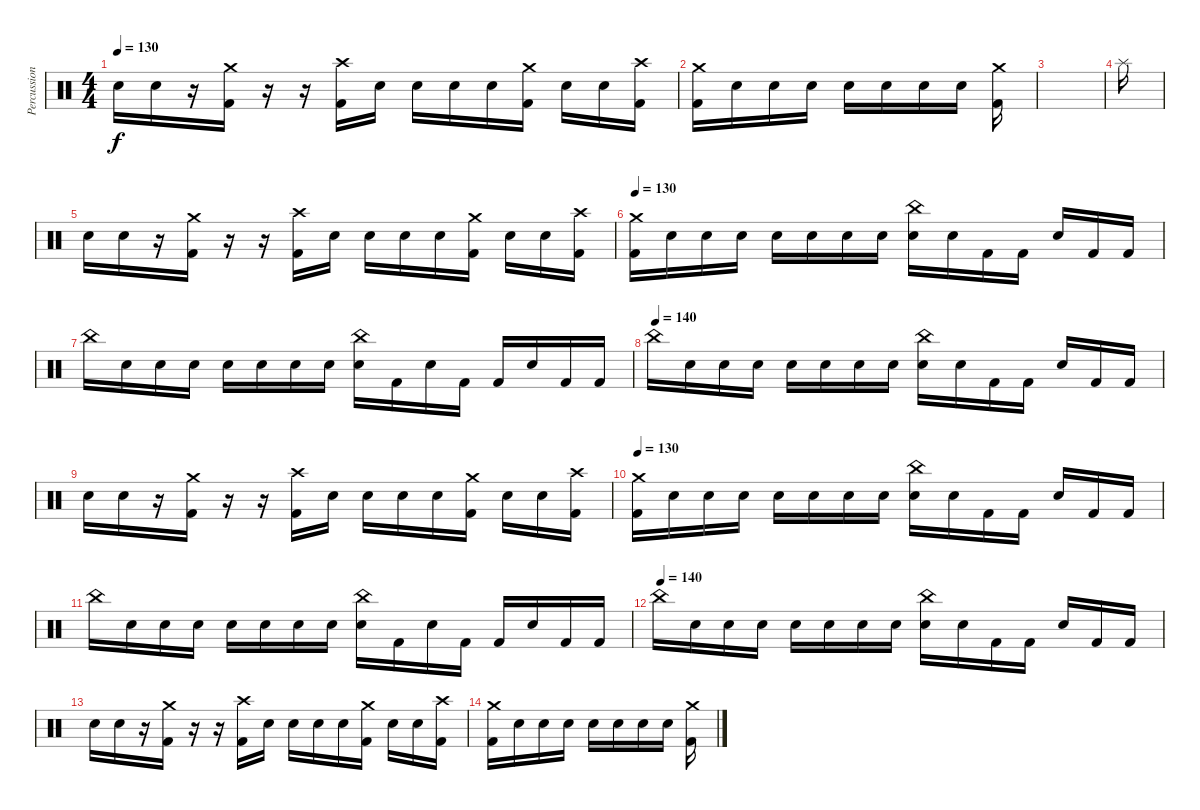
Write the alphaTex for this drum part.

\track ("Percussion" "Percussion") {instrument percussion}
\staff {score}
\articulation defaults
\ts (4 4)
\tempo 130
\clef neutral
\ks c "Snare (hit) 2".16{dy f} "Snare (hit)".16
r.16 ("Crash medium (hit)" "Kick (hit) 2").16 r.16 r.16 ("Crash high (hit)" "Kick (hit) 2").16 "Snare (hit)".16 "Snare (hit) 2".16 "Snare (hit)".16 "Snare (hit)".16 ("Crash medium (hit)" "Kick (hit) 2").16 "Snare (hit)".16 "Snare (hit)".16 ("Crash high (hit)" "Kick (hit) 2").16 |
("Crash medium (hit)" "Kick (hit) 2").16 "Snare (hit)".16 "Snare (hit)".16 "Snare (hit)".16 "Snare (hit)".16 "Snare (hit)".16 "Snare (hit)".16 "Snare (hit)".16 ("Crash medium (hit)" "Kick (hit) 2").16 |
|
"Splash (hit)".16 |
"Snare (hit) 2".16 "Snare (hit)".16 r.16 ("Crash medium (hit)" "Kick (hit) 2").16 r.16 r.16 ("Crash high (hit)" "Kick (hit) 2").16 "Snare (hit)".16 "Snare (hit) 2".16 "Snare (hit)".16 "Snare (hit)".16 ("Crash medium (hit)" "Kick (hit) 2").16 "Snare (hit)".16 "Snare (hit)".16 ("Crash high (hit)" "Kick (hit) 2").16 |
\tempo 130
("Crash medium (hit)" "Kick (hit) 2").16 "Snare (hit)".16 "Snare (hit)".16 "Snare (hit)".16 "Snare (hit)".16 "Snare (hit)".16 "Snare (hit)".16 "Snare (hit)".16 ("China (hit)" "Snare (hit) 2").16 "Snare (hit)".16 "Kick (hit) 2".16 "Kick (hit) 2".16 "Snare (hit)".16 "Kick (hit) 2".16 "Kick (hit) 2".16 |
"China (hit)".16 "Snare (hit)".16 "Snare (hit)".16 "Snare (hit)".16 "Snare (hit)".16 "Snare (hit)".16 "Snare (hit)".16 "Snare (hit)".16 ("China (hit)" "Snare (hit) 2").16 "Kick (hit) 2".16 "Snare (hit)".16 "Kick (hit) 2".16 "Kick (hit) 2".16 "Snare (hit)".16 "Kick (hit) 2".16 "Kick (hit) 2".16 |
\tempo (140)
"China (hit)".16 "Snare (hit)".16 "Snare (hit)".16 "Snare (hit)".16 "Snare (hit)".16 "Snare (hit)".16 "Snare (hit)".16 "Snare (hit)".16 ("China (hit)" "Snare (hit) 2").16 "Snare (hit)".16 "Kick (hit) 2".16 "Kick (hit) 2".16 "Snare (hit)".16 "Kick (hit) 2".16 "Kick (hit) 2".16 |
"Snare (hit) 2".16 "Snare (hit)".16 r.16 ("Crash medium (hit)" "Kick (hit) 2").16 r.16 r.16 ("Crash high (hit)" "Kick (hit) 2").16 "Snare (hit)".16 "Snare (hit) 2".16 "Snare (hit)".16 "Snare (hit)".16 ("Crash medium (hit)" "Kick (hit) 2").16 "Snare (hit)".16 "Snare (hit)".16 ("Crash high (hit)" "Kick (hit) 2").16 |
\tempo 130
("Crash medium (hit)" "Kick (hit) 2").16 "Snare (hit)".16 "Snare (hit)".16 "Snare (hit)".16 "Snare (hit)".16 "Snare (hit)".16 "Snare (hit)".16 "Snare (hit)".16 ("China (hit)" "Snare (hit) 2").16 "Snare (hit)".16 "Kick (hit) 2".16 "Kick (hit) 2".16 "Snare (hit)".16 "Kick (hit) 2".16 "Kick (hit) 2".16 |
"China (hit)".16 "Snare (hit)".16 "Snare (hit)".16 "Snare (hit)".16 "Snare (hit)".16 "Snare (hit)".16 "Snare (hit)".16 "Snare (hit)".16 ("China (hit)" "Snare (hit) 2").16 "Kick (hit) 2".16 "Snare (hit)".16 "Kick (hit) 2".16 "Kick (hit) 2".16 "Snare (hit)".16 "Kick (hit) 2".16 "Kick (hit) 2".16 |
\tempo (140)
"China (hit)".16 "Snare (hit)".16 "Snare (hit)".16 "Snare (hit)".16 "Snare (hit)".16 "Snare (hit)".16 "Snare (hit)".16 "Snare (hit)".16 ("China (hit)" "Snare (hit) 2").16 "Snare (hit)".16 "Kick (hit) 2".16 "Kick (hit) 2".16 "Snare (hit)".16 "Kick (hit) 2".16 "Kick (hit) 2".16 |
"Snare (hit) 2".16 "Snare (hit)".16 r.16 ("Crash medium (hit)" "Kick (hit) 2").16 r.16 r.16 ("Crash high (hit)" "Kick (hit) 2").16 "Snare (hit)".16 "Snare (hit) 2".16 "Snare (hit)".16 "Snare (hit)".16 ("Crash medium (hit)" "Kick (hit) 2").16 "Snare (hit)".16 "Snare (hit)".16 ("Crash high (hit)" "Kick (hit) 2").16 |
("Crash medium (hit)" "Kick (hit) 2").16 "Snare (hit)".16 "Snare (hit)".16 "Snare (hit)".16 "Snare (hit)".16 "Snare (hit)".16 "Snare (hit)".16 "Snare (hit)".16 ("Crash medium (hit)" "Kick (hit) 2").16
